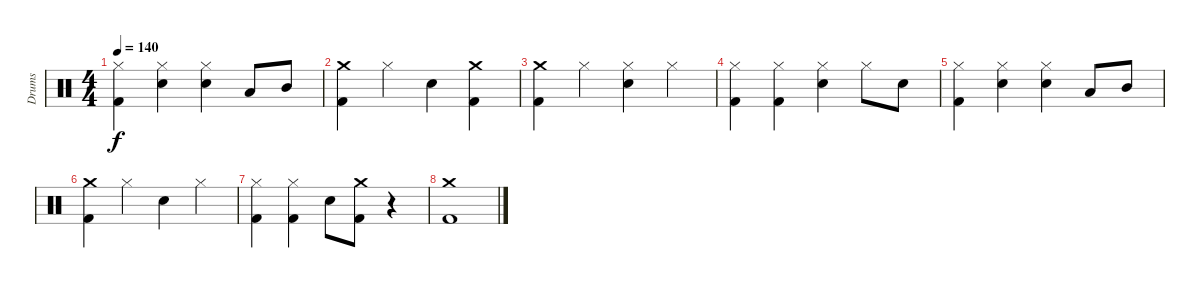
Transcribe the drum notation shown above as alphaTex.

\track ("Drums" "Drums") {mute instrument percussion}
\staff {score}
\articulation defaults
\ts (4 4)
\tempo 140
\clef neutral
\ks c
("Hi-Hat (closed)" "Kick (hit) 2").4{dy f} ("Hi-Hat (closed)" "Snare (hit) 2").4 ("Hi-Hat (closed)" "Snare (hit) 2").4 "Low Tom (hit)".8 "Mid Tom (hit)".8 |
("Crash medium (hit)" "Kick (hit) 2").4 "Hi-Hat (closed)".4 "Snare (hit) 2".4 ("Crash medium (hit)" "Kick (hit) 2").4 |
("Crash medium (hit)" "Kick (hit) 2").4 "Hi-Hat (closed)".4 ("Hi-Hat (closed)" "Snare (hit) 2").4 "Hi-Hat (closed)".4 |
("Hi-Hat (closed)" "Kick (hit) 2").4 ("Hi-Hat (closed)" "Kick (hit) 2").4 ("Hi-Hat (closed)" "Snare (hit) 2").4 "Hi-Hat (closed)".8 "Snare (hit) 2".8 |
("Hi-Hat (closed)" "Kick (hit) 2").4 ("Hi-Hat (closed)" "Snare (hit) 2").4 ("Hi-Hat (closed)" "Snare (hit) 2").4 "Low Tom (hit)".8 "Mid Tom (hit)".8 |
("Crash medium (hit)" "Kick (hit) 2").4 "Hi-Hat (closed)".4 "Snare (hit) 2".4 "Hi-Hat (closed)".4 |
("Hi-Hat (closed)" "Kick (hit) 2").4 ("Hi-Hat (closed)" "Kick (hit) 2").4 "Snare (hit) 2".8 ("Crash medium (hit)" "Kick (hit) 2").8 r.4 |
("Crash medium (hit)" "Kick (hit) 2").1
